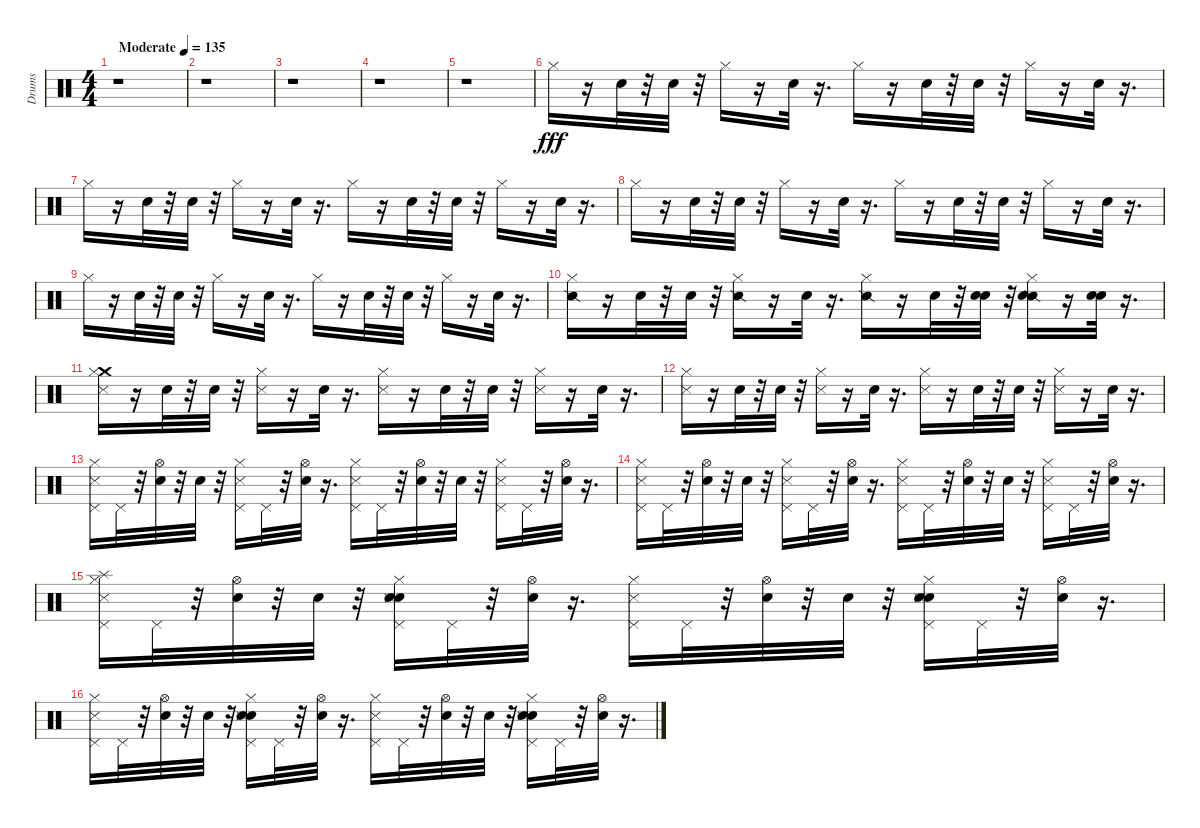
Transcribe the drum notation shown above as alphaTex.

\track ("Drums" "Drums") {instrument percussion}
\staff {score}
\articulation defaults
\ts (4 4)
\tempo (135 "Moderate")
\clef neutral
\ks c
r.1{dy fff} |
r.1 |
r.1 |
r.1 |
r.1 |
"Hi-Hat (closed)".16{volume 1} r.16 "Snare (hit)".32{volume 1} r.32 "Snare (hit)".32{volume 2} r.32 "Hi-Hat (closed)".16{volume 2} r.16 "Snare (hit)".32{volume 2} r.16{d} "Hi-Hat (closed)".16{volume 3} r.16 "Snare (hit)".32{volume 3} r.32 "Snare (hit)".32{volume 4} r.32 "Hi-Hat (closed)".16{volume 4} r.16 "Snare (hit)".32{volume 4} r.16{d} |
"Hi-Hat (closed)".16{volume 5} r.16 "Snare (hit)".32{volume 5} r.32 "Snare (hit)".32{volume 6} r.32 "Hi-Hat (closed)".16{volume 6} r.16 "Snare (hit)".32{volume 6} r.16{d} "Hi-Hat (closed)".16{volume 7} r.16 "Snare (hit)".32{volume 7} r.32 "Snare (hit)".32{volume 7} r.32 "Hi-Hat (closed)".16{volume 8} r.16 "Snare (hit)".32{volume 8} r.16{d} |
"Hi-Hat (closed)".16{volume 9} r.16 "Snare (hit)".32{volume 9} r.32 "Snare (hit)".32{volume 9} r.32 "Hi-Hat (closed)".16{volume 10} r.16 "Snare (hit)".32{volume 10} r.16{d} "Hi-Hat (closed)".16{volume 11} r.16 "Snare (hit)".32{volume 11} r.32 "Snare (hit)".32{volume 11} r.32 "Hi-Hat (closed)".16{volume 12} r.16 "Snare (hit)".32{volume 12} r.16{d} |
"Hi-Hat (closed)".16{volume 12} r.16 "Snare (hit)".32{volume 13} r.32 "Snare (hit)".32{volume 13} r.32 "Hi-Hat (closed)".16{volume 14} r.16 "Snare (hit)".32{volume 14} r.16{d} "Hi-Hat (closed)".16{volume 14} r.16 "Snare (hit)".32{volume 15} r.32 "Snare (hit)".32{volume 15} r.32 "Hi-Hat (closed)".16{volume 15} r.16 "Snare (hit)".32{volume 16} r.16{d} |
("Snare (side stick) 2" "Hi-Hat (closed)").16 r.16 "Snare (hit)".32 r.32 "Snare (hit)".32 r.32 ("Hi-Hat (closed)" "Snare (side stick) 2").16 r.16 "Snare (hit)".32 r.16{d} ("Hi-Hat (closed)" "Snare (side stick) 2").16 r.16 "Snare (hit)".32 r.32 ("Snare (hit)" "Metronome (bell)").32 r.32 ("Hi-Hat (closed)" "Snare (side stick) 2" "Metronome (bell)").16 r.16 ("Electric Snare (hit)" "Snare (hit)").32 r.16{d} |
("Crash medium (hit)" "Hi-Hat (closed)" "Metronome (hit)").16 r.16 "Snare (hit)".32 r.32 "Snare (hit)".32 r.32 ("Metronome (hit)" "Hi-Hat (closed)").16 r.16 "Snare (hit)".32 r.16{d} ("Metronome (hit)" "Hi-Hat (closed)").16 r.16 "Snare (hit)".32 r.32 "Snare (hit)".32 r.32 ("Hi-Hat (closed)" "Metronome (hit)").16 r.16 "Snare (hit)".32 r.16{d} |
("Hi-Hat (closed)" "Metronome (hit)").16 r.16 "Snare (hit)".32 r.32 "Snare (hit)".32 r.32 ("Metronome (hit)" "Hi-Hat (closed)").16 r.16 "Snare (hit)".32 r.16{d} ("Metronome (hit)" "Hi-Hat (closed)").16 r.16 "Snare (hit)".32 r.32 "Snare (hit)".32 r.32 ("Hi-Hat (closed)" "Metronome (hit)").16 r.16 "Snare (hit)".32 r.16{d} |
("Pedal Hi-Hat (hit)" "Hi-Hat (closed)" "Metronome (hit)").16 "Pedal Hi-Hat (hit)".32 r.32 ("Hi-Hat (open)" "Snare (hit)").32 r.32 "Snare (hit)".32 r.32 ("Hi-Hat (closed)" "Pedal Hi-Hat (hit)" "Metronome (hit)").16 "Pedal Hi-Hat (hit)".32 r.32 ("Snare (hit)" "Hi-Hat (open)").32 r.16{d} ("Hi-Hat (closed)" "Pedal Hi-Hat (hit)" "Metronome (hit)").16 "Pedal Hi-Hat (hit)".32 r.32 ("Snare (hit)" "Hi-Hat (open)").32 r.32 "Snare (hit)".32 r.32 ("Pedal Hi-Hat (hit)" "Hi-Hat (closed)" "Metronome (hit)").16 "Pedal Hi-Hat (hit)".32 r.32 ("Hi-Hat (open)" "Snare (hit)").32 r.16{d} |
("Pedal Hi-Hat (hit)" "Hi-Hat (closed)" "Metronome (hit)").16 "Pedal Hi-Hat (hit)".32 r.32 ("Hi-Hat (open)" "Snare (hit)").32 r.32 "Snare (hit)".32 r.32 ("Hi-Hat (closed)" "Pedal Hi-Hat (hit)" "Metronome (hit)").16 "Pedal Hi-Hat (hit)".32 r.32 ("Snare (hit)" "Hi-Hat (open)").32 r.16{d} ("Hi-Hat (closed)" "Pedal Hi-Hat (hit)" "Metronome (hit)").16 "Pedal Hi-Hat (hit)".32 r.32 ("Snare (hit)" "Hi-Hat (open)").32 r.32 "Snare (hit)".32 r.32 ("Pedal Hi-Hat (hit)" "Hi-Hat (closed)" "Metronome (hit)").16 "Pedal Hi-Hat (hit)".32 r.32 ("Hi-Hat (open)" "Snare (hit)").32 r.16{d} |
("Splash (hit)" "Pedal Hi-Hat (hit)" "Hi-Hat (closed)" "Metronome (hit)").16 "Pedal Hi-Hat (hit)".32 r.32 ("Hi-Hat (open)" "Snare (hit)").32 r.32 "Snare (hit)".32 r.32 ("Snare (hit)" "Pedal Hi-Hat (hit)" "Hi-Hat (closed)" "Hand Clap (hit)" "Metronome (hit)").16 "Pedal Hi-Hat (hit)".32 r.32 ("Snare (hit)" "Hi-Hat (open)").32 r.16{d} ("Pedal Hi-Hat (hit)" "Metronome (hit)" "Hi-Hat (closed)").16 "Pedal Hi-Hat (hit)".32 r.32 ("Hi-Hat (open)" "Snare (hit)").32 r.32 "Snare (hit)".32 r.32 ("Hi-Hat (closed)" "Hand Clap (hit)" "Snare (hit)" "Pedal Hi-Hat (hit)" "Metronome (hit)").16 "Pedal Hi-Hat (hit)".32 r.32 ("Hi-Hat (open)" "Snare (hit)").32 r.16{d} |
("Pedal Hi-Hat (hit)" "Hi-Hat (closed)" "Metronome (hit)").16 "Pedal Hi-Hat (hit)".32 r.32 ("Hi-Hat (open)" "Snare (hit)").32 r.32 "Snare (hit)".32 r.32 ("Snare (hit)" "Pedal Hi-Hat (hit)" "Hi-Hat (closed)" "Hand Clap (hit)" "Metronome (hit)").16 "Pedal Hi-Hat (hit)".32 r.32 ("Snare (hit)" "Hi-Hat (open)").32 r.16{d} ("Pedal Hi-Hat (hit)" "Metronome (hit)" "Hi-Hat (closed)").16 "Pedal Hi-Hat (hit)".32 r.32 ("Hi-Hat (open)" "Snare (hit)").32 r.32 "Snare (hit)".32 r.32 ("Hi-Hat (closed)" "Hand Clap (hit)" "Snare (hit)" "Pedal Hi-Hat (hit)" "Metronome (hit)").16 "Pedal Hi-Hat (hit)".32 r.32 ("Hi-Hat (open)" "Snare (hit)").32 r.16{d}
